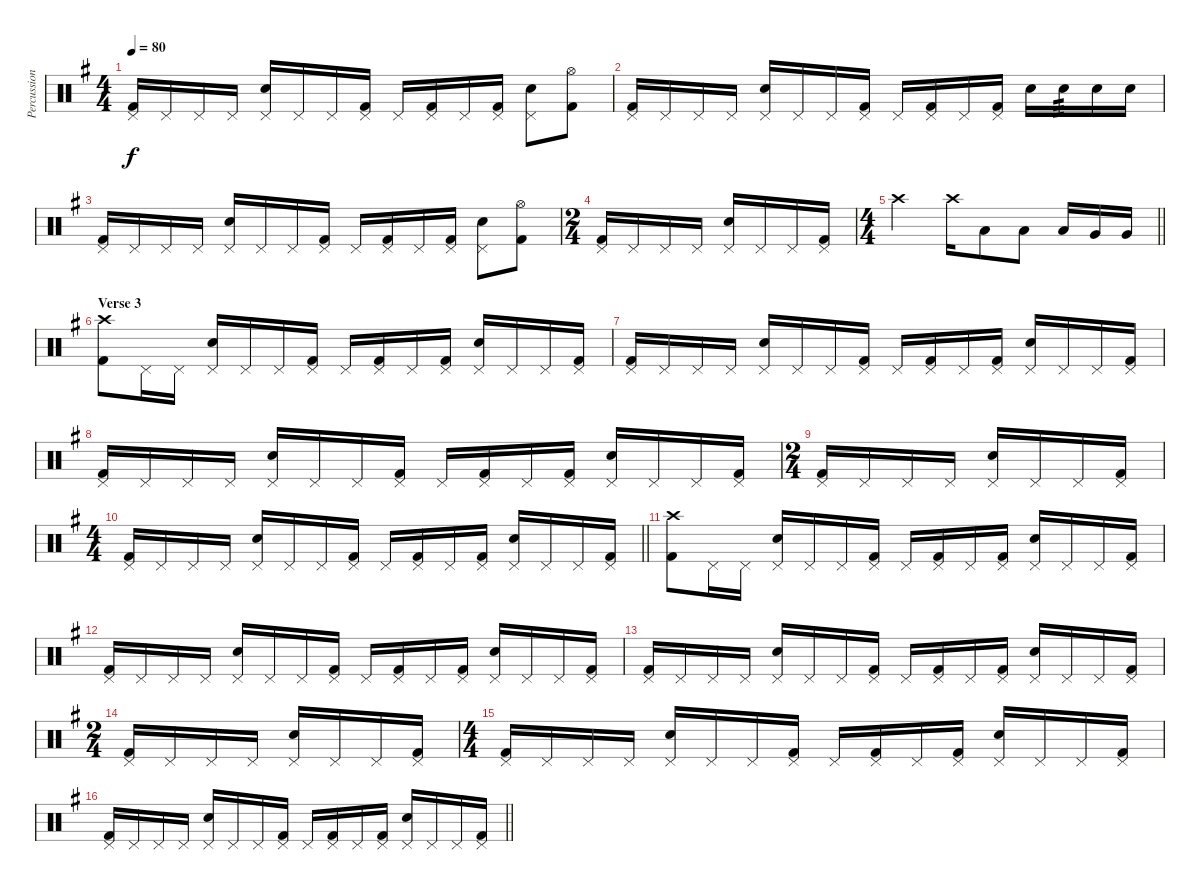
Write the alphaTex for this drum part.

\track ("Percussion" "Percussion") {instrument percussion}
\staff {score}
\articulation defaults
\ts (4 4)
\tempo 80
\clef neutral
\ks g
("Pedal Hi-Hat (hit)" "Kick (hit) 2").16{dy f} "Pedal Hi-Hat (hit)".16 "Pedal Hi-Hat (hit)".16 "Pedal Hi-Hat (hit)".16 ("Pedal Hi-Hat (hit)" "Electric Snare (hit)").16 "Pedal Hi-Hat (hit)".16 "Pedal Hi-Hat (hit)".16 ("Pedal Hi-Hat (hit)" "Kick (hit) 2").16 "Pedal Hi-Hat (hit)".16 ("Pedal Hi-Hat (hit)" "Kick (hit) 2").16 "Pedal Hi-Hat (hit)".16 ("Pedal Hi-Hat (hit)" "Kick (hit) 2").16 ("Pedal Hi-Hat (hit)" "Electric Snare (hit)").8 ("Hi-Hat (open)" "Kick (hit) 2").8 |
("Pedal Hi-Hat (hit)" "Kick (hit) 2").16 "Pedal Hi-Hat (hit)".16 "Pedal Hi-Hat (hit)".16 "Pedal Hi-Hat (hit)".16 ("Pedal Hi-Hat (hit)" "Electric Snare (hit)").16 "Pedal Hi-Hat (hit)".16 "Pedal Hi-Hat (hit)".16 ("Pedal Hi-Hat (hit)" "Kick (hit) 2").16 "Pedal Hi-Hat (hit)".16 ("Pedal Hi-Hat (hit)" "Kick (hit) 2").16 "Pedal Hi-Hat (hit)".16 ("Pedal Hi-Hat (hit)" "Kick (hit) 2").16 "Electric Snare (hit)".16 "Electric Snare (hit)".16{tp 3} "Electric Snare (hit)".16 "Electric Snare (hit)".16 |
("Pedal Hi-Hat (hit)" "Kick (hit) 2").16 "Pedal Hi-Hat (hit)".16 "Pedal Hi-Hat (hit)".16 "Pedal Hi-Hat (hit)".16 ("Pedal Hi-Hat (hit)" "Electric Snare (hit)").16 "Pedal Hi-Hat (hit)".16 "Pedal Hi-Hat (hit)".16 ("Pedal Hi-Hat (hit)" "Kick (hit) 2").16 "Pedal Hi-Hat (hit)".16 ("Pedal Hi-Hat (hit)" "Kick (hit) 2").16 "Pedal Hi-Hat (hit)".16 ("Pedal Hi-Hat (hit)" "Kick (hit) 2").16 ("Pedal Hi-Hat (hit)" "Electric Snare (hit)").8 ("Hi-Hat (open)" "Kick (hit) 2").8 |
\ts (2 4)
("Pedal Hi-Hat (hit)" "Kick (hit) 2").16 "Pedal Hi-Hat (hit)".16 "Pedal Hi-Hat (hit)".16 "Pedal Hi-Hat (hit)".16 ("Pedal Hi-Hat (hit)" "Electric Snare (hit)").16 "Pedal Hi-Hat (hit)".16 "Pedal Hi-Hat (hit)".16 ("Pedal Hi-Hat (hit)" "Kick (hit) 2").16 |
\ts (4 4)
\barLineRight lightlight "Crash high (hit)".2 "Crash high (hit)".16 "Low Tom (hit)".8 "Low Tom (hit)".8 "Low Tom (hit)".16 "Very Low Tom (hit)".16 "Very Low Tom (hit)".16
|
\section ("" "Verse 3")
("Crash high (hit)" "Kick (hit) 2").8 "Pedal Hi-Hat (hit)".16 "Pedal Hi-Hat (hit)".16 ("Pedal Hi-Hat (hit)" "Electric Snare (hit)").16 "Pedal Hi-Hat (hit)".16 "Pedal Hi-Hat (hit)".16 ("Pedal Hi-Hat (hit)" "Kick (hit) 2").16 "Pedal Hi-Hat (hit)".16 ("Pedal Hi-Hat (hit)" "Kick (hit) 2").16 "Pedal Hi-Hat (hit)".16 ("Pedal Hi-Hat (hit)" "Kick (hit) 2").16 ("Pedal Hi-Hat (hit)" "Electric Snare (hit)").16 "Pedal Hi-Hat (hit)".16 "Pedal Hi-Hat (hit)".16 ("Pedal Hi-Hat (hit)" "Kick (hit) 2").16 |
("Pedal Hi-Hat (hit)" "Kick (hit) 2").16 "Pedal Hi-Hat (hit)".16 "Pedal Hi-Hat (hit)".16 "Pedal Hi-Hat (hit)".16 ("Pedal Hi-Hat (hit)" "Electric Snare (hit)").16 "Pedal Hi-Hat (hit)".16 "Pedal Hi-Hat (hit)".16 ("Pedal Hi-Hat (hit)" "Kick (hit) 2").16 "Pedal Hi-Hat (hit)".16 ("Pedal Hi-Hat (hit)" "Kick (hit) 2").16 "Pedal Hi-Hat (hit)".16 ("Pedal Hi-Hat (hit)" "Kick (hit) 2").16 ("Pedal Hi-Hat (hit)" "Electric Snare (hit)").16 "Pedal Hi-Hat (hit)".16 "Pedal Hi-Hat (hit)".16 ("Pedal Hi-Hat (hit)" "Kick (hit) 2").16 |
("Pedal Hi-Hat (hit)" "Kick (hit) 2").16 "Pedal Hi-Hat (hit)".16 "Pedal Hi-Hat (hit)".16 "Pedal Hi-Hat (hit)".16 ("Pedal Hi-Hat (hit)" "Electric Snare (hit)").16 "Pedal Hi-Hat (hit)".16 "Pedal Hi-Hat (hit)".16 ("Pedal Hi-Hat (hit)" "Kick (hit) 2").16 "Pedal Hi-Hat (hit)".16 ("Pedal Hi-Hat (hit)" "Kick (hit) 2").16 "Pedal Hi-Hat (hit)".16 ("Pedal Hi-Hat (hit)" "Kick (hit) 2").16 ("Pedal Hi-Hat (hit)" "Electric Snare (hit)").16 "Pedal Hi-Hat (hit)".16 "Pedal Hi-Hat (hit)".16 ("Pedal Hi-Hat (hit)" "Kick (hit) 2").16 |
\ts (2 4)
("Pedal Hi-Hat (hit)" "Kick (hit) 2").16 "Pedal Hi-Hat (hit)".16 "Pedal Hi-Hat (hit)".16 "Pedal Hi-Hat (hit)".16 ("Pedal Hi-Hat (hit)" "Electric Snare (hit)").16 "Pedal Hi-Hat (hit)".16 "Pedal Hi-Hat (hit)".16 ("Pedal Hi-Hat (hit)" "Kick (hit) 2").16 |
\ts (4 4)
\barLineRight lightlight
("Pedal Hi-Hat (hit)" "Kick (hit) 2").16 "Pedal Hi-Hat (hit)".16 "Pedal Hi-Hat (hit)".16 "Pedal Hi-Hat (hit)".16 ("Pedal Hi-Hat (hit)" "Electric Snare (hit)").16 "Pedal Hi-Hat (hit)".16 "Pedal Hi-Hat (hit)".16 ("Pedal Hi-Hat (hit)" "Kick (hit) 2").16 "Pedal Hi-Hat (hit)".16 ("Pedal Hi-Hat (hit)" "Kick (hit) 2").16 "Pedal Hi-Hat (hit)".16 ("Pedal Hi-Hat (hit)" "Kick (hit) 2").16 ("Pedal Hi-Hat (hit)" "Electric Snare (hit)").16 "Pedal Hi-Hat (hit)".16 "Pedal Hi-Hat (hit)".16 ("Pedal Hi-Hat (hit)" "Kick (hit) 2").16 |
("Crash high (hit)" "Kick (hit) 2").8 "Pedal Hi-Hat (hit)".16 "Pedal Hi-Hat (hit)".16 ("Pedal Hi-Hat (hit)" "Electric Snare (hit)").16 "Pedal Hi-Hat (hit)".16 "Pedal Hi-Hat (hit)".16 ("Pedal Hi-Hat (hit)" "Kick (hit) 2").16 "Pedal Hi-Hat (hit)".16 ("Pedal Hi-Hat (hit)" "Kick (hit) 2").16 "Pedal Hi-Hat (hit)".16 ("Pedal Hi-Hat (hit)" "Kick (hit) 2").16 ("Pedal Hi-Hat (hit)" "Electric Snare (hit)").16 "Pedal Hi-Hat (hit)".16 "Pedal Hi-Hat (hit)".16 ("Pedal Hi-Hat (hit)" "Kick (hit) 2").16 |
("Pedal Hi-Hat (hit)" "Kick (hit) 2").16 "Pedal Hi-Hat (hit)".16 "Pedal Hi-Hat (hit)".16 "Pedal Hi-Hat (hit)".16 ("Pedal Hi-Hat (hit)" "Electric Snare (hit)").16 "Pedal Hi-Hat (hit)".16 "Pedal Hi-Hat (hit)".16 ("Pedal Hi-Hat (hit)" "Kick (hit) 2").16 "Pedal Hi-Hat (hit)".16 ("Pedal Hi-Hat (hit)" "Kick (hit) 2").16 "Pedal Hi-Hat (hit)".16 ("Pedal Hi-Hat (hit)" "Kick (hit) 2").16 ("Pedal Hi-Hat (hit)" "Electric Snare (hit)").16 "Pedal Hi-Hat (hit)".16 "Pedal Hi-Hat (hit)".16 ("Pedal Hi-Hat (hit)" "Kick (hit) 2").16 |
("Pedal Hi-Hat (hit)" "Kick (hit) 2").16 "Pedal Hi-Hat (hit)".16 "Pedal Hi-Hat (hit)".16 "Pedal Hi-Hat (hit)".16 ("Pedal Hi-Hat (hit)" "Electric Snare (hit)").16 "Pedal Hi-Hat (hit)".16 "Pedal Hi-Hat (hit)".16 ("Pedal Hi-Hat (hit)" "Kick (hit) 2").16 "Pedal Hi-Hat (hit)".16 ("Pedal Hi-Hat (hit)" "Kick (hit) 2").16 "Pedal Hi-Hat (hit)".16 ("Pedal Hi-Hat (hit)" "Kick (hit) 2").16 ("Pedal Hi-Hat (hit)" "Electric Snare (hit)").16 "Pedal Hi-Hat (hit)".16 "Pedal Hi-Hat (hit)".16 ("Pedal Hi-Hat (hit)" "Kick (hit) 2").16 |
\ts (2 4)
("Pedal Hi-Hat (hit)" "Kick (hit) 2").16 "Pedal Hi-Hat (hit)".16 "Pedal Hi-Hat (hit)".16 "Pedal Hi-Hat (hit)".16 ("Pedal Hi-Hat (hit)" "Electric Snare (hit)").16 "Pedal Hi-Hat (hit)".16 "Pedal Hi-Hat (hit)".16 ("Pedal Hi-Hat (hit)" "Kick (hit) 2").16 |
\ts (4 4)
("Pedal Hi-Hat (hit)" "Kick (hit) 2").16 "Pedal Hi-Hat (hit)".16 "Pedal Hi-Hat (hit)".16 "Pedal Hi-Hat (hit)".16 ("Pedal Hi-Hat (hit)" "Electric Snare (hit)").16 "Pedal Hi-Hat (hit)".16 "Pedal Hi-Hat (hit)".16 ("Pedal Hi-Hat (hit)" "Kick (hit) 2").16 "Pedal Hi-Hat (hit)".16 ("Pedal Hi-Hat (hit)" "Kick (hit) 2").16 "Pedal Hi-Hat (hit)".16 ("Pedal Hi-Hat (hit)" "Kick (hit) 2").16 ("Pedal Hi-Hat (hit)" "Electric Snare (hit)").16 "Pedal Hi-Hat (hit)".16 "Pedal Hi-Hat (hit)".16 ("Pedal Hi-Hat (hit)" "Kick (hit) 2").16 |
\barLineRight lightlight
("Pedal Hi-Hat (hit)" "Kick (hit) 2").16 "Pedal Hi-Hat (hit)".16 "Pedal Hi-Hat (hit)".16 "Pedal Hi-Hat (hit)".16 ("Pedal Hi-Hat (hit)" "Electric Snare (hit)").16 "Pedal Hi-Hat (hit)".16 "Pedal Hi-Hat (hit)".16 ("Pedal Hi-Hat (hit)" "Kick (hit) 2").16 "Pedal Hi-Hat (hit)".16 ("Pedal Hi-Hat (hit)" "Kick (hit) 2").16 "Pedal Hi-Hat (hit)".16 ("Pedal Hi-Hat (hit)" "Kick (hit) 2").16 ("Pedal Hi-Hat (hit)" "Electric Snare (hit)").16 "Pedal Hi-Hat (hit)".16 "Pedal Hi-Hat (hit)".16 ("Pedal Hi-Hat (hit)" "Kick (hit) 2").16
